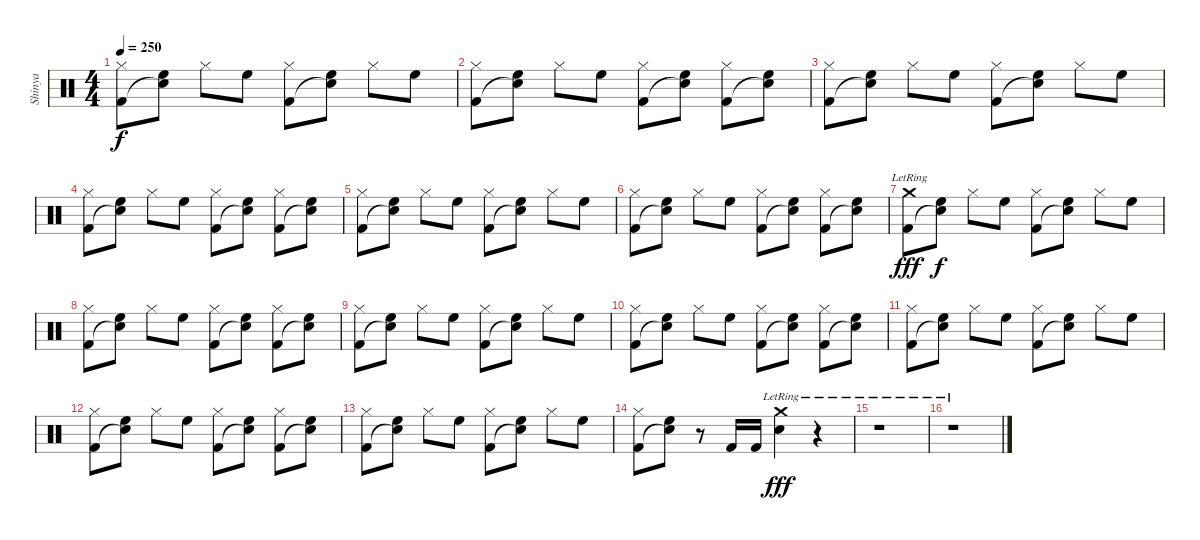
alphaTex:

\track ("Shinya" "Shinya") {instrument percussion}
\staff {score}
\articulation defaults
\ts (4 4)
\tempo 250
\clef neutral
\ks c
("Hi-Hat (closed)" "Kick (hit) 2").8{dy f} ("High Floor Tom (hit)" "Snare (hit)"{t}).8 "Hi-Hat (closed)".8 "High Floor Tom (hit)".8 ("Hi-Hat (closed)" "Kick (hit) 2").8 ("High Floor Tom (hit)" "Snare (hit)"{t}).8 "Hi-Hat (closed)".8 "High Floor Tom (hit)".8 |
("Hi-Hat (closed)" "Kick (hit) 2").8 ("High Floor Tom (hit)" "Snare (hit)"{t}).8 "Hi-Hat (closed)".8 "High Floor Tom (hit)".8 ("Hi-Hat (closed)" "Kick (hit) 2").8 ("High Floor Tom (hit)" "Snare (hit)"{t}).8 ("Hi-Hat (closed)" "Kick (hit) 2").8 ("High Floor Tom (hit)" "Snare (hit)"{t}).8 |
("Hi-Hat (closed)" "Kick (hit) 2").8 ("High Floor Tom (hit)" "Snare (hit)"{t}).8 "Hi-Hat (closed)".8 "High Floor Tom (hit)".8 ("Hi-Hat (closed)" "Kick (hit) 2").8 ("High Floor Tom (hit)" "Snare (hit)"{t}).8 "Hi-Hat (closed)".8 "High Floor Tom (hit)".8 |
("Hi-Hat (closed)" "Kick (hit) 2").8 ("High Floor Tom (hit)" "Snare (hit)"{t}).8 "Hi-Hat (closed)".8 "High Floor Tom (hit)".8 ("Hi-Hat (closed)" "Kick (hit) 2").8 ("High Floor Tom (hit)" "Snare (hit)"{t}).8 ("Hi-Hat (closed)" "Kick (hit) 2").8 ("High Floor Tom (hit)" "Snare (hit)"{t}).8 |
("Hi-Hat (closed)" "Kick (hit) 2").8 ("High Floor Tom (hit)" "Snare (hit)"{t}).8 "Hi-Hat (closed)".8 "High Floor Tom (hit)".8 ("Hi-Hat (closed)" "Kick (hit) 2").8 ("High Floor Tom (hit)" "Snare (hit)"{t}).8 "Hi-Hat (closed)".8 "High Floor Tom (hit)".8 |
("Hi-Hat (closed)" "Kick (hit) 2").8 ("High Floor Tom (hit)" "Snare (hit)"{t}).8 "Hi-Hat (closed)".8 "High Floor Tom (hit)".8 ("Hi-Hat (closed)" "Kick (hit) 2").8 ("High Floor Tom (hit)" "Snare (hit)"{t}).8 ("Hi-Hat (closed)" "Kick (hit) 2").8 ("High Floor Tom (hit)" "Snare (hit)"{t}).8 |
("Crash medium (hit)"{lr} "Kick (hit) 2").8{dy fff} ("High Floor Tom (hit)" "Snare (hit)"{t}).8{dy f} "Hi-Hat (closed)".8 "High Floor Tom (hit)".8 ("Hi-Hat (closed)" "Kick (hit) 2").8 ("High Floor Tom (hit)" "Snare (hit)"{t}).8 "Hi-Hat (closed)".8 "High Floor Tom (hit)".8 |
("Hi-Hat (closed)" "Kick (hit) 2").8 ("High Floor Tom (hit)" "Snare (hit)"{t}).8 "Hi-Hat (closed)".8 "High Floor Tom (hit)".8 ("Hi-Hat (closed)" "Kick (hit) 2").8 ("High Floor Tom (hit)" "Snare (hit)"{t}).8 ("Hi-Hat (closed)" "Kick (hit) 2").8 ("High Floor Tom (hit)" "Snare (hit)"{t}).8 |
("Hi-Hat (closed)" "Kick (hit) 2").8 ("High Floor Tom (hit)" "Snare (hit)"{t}).8 "Hi-Hat (closed)".8 "High Floor Tom (hit)".8 ("Hi-Hat (closed)" "Kick (hit) 2").8 ("High Floor Tom (hit)" "Snare (hit)"{t}).8 "Hi-Hat (closed)".8 "High Floor Tom (hit)".8 |
("Hi-Hat (closed)" "Kick (hit) 2").8 ("High Floor Tom (hit)" "Snare (hit)"{t}).8 "Hi-Hat (closed)".8 "High Floor Tom (hit)".8 ("Hi-Hat (closed)" "Kick (hit) 2").8 ("High Floor Tom (hit)" "Snare (hit)"{t}).8 ("Hi-Hat (closed)" "Kick (hit) 2").8 ("High Floor Tom (hit)" "Snare (hit)"{t}).8 |
("Hi-Hat (closed)" "Kick (hit) 2").8 ("High Floor Tom (hit)" "Snare (hit)"{t}).8 "Hi-Hat (closed)".8 "High Floor Tom (hit)".8 ("Hi-Hat (closed)" "Kick (hit) 2").8 ("High Floor Tom (hit)" "Snare (hit)"{t}).8 "Hi-Hat (closed)".8 "High Floor Tom (hit)".8 |
("Hi-Hat (closed)" "Kick (hit) 2").8 ("High Floor Tom (hit)" "Snare (hit)"{t}).8 "Hi-Hat (closed)".8 "High Floor Tom (hit)".8 ("Hi-Hat (closed)" "Kick (hit) 2").8 ("High Floor Tom (hit)" "Snare (hit)"{t}).8 ("Hi-Hat (closed)" "Kick (hit) 2").8 ("High Floor Tom (hit)" "Snare (hit)"{t}).8 |
("Hi-Hat (closed)" "Kick (hit) 2").8 ("High Floor Tom (hit)" "Snare (hit)"{t}).8 "Hi-Hat (closed)".8 "High Floor Tom (hit)".8 ("Hi-Hat (closed)" "Kick (hit) 2").8 ("High Floor Tom (hit)" "Snare (hit)"{t}).8 "Hi-Hat (closed)".8 "High Floor Tom (hit)".8 |
("Hi-Hat (closed)" "Kick (hit) 2").8 ("High Floor Tom (hit)" "Snare (hit)"{t}).8 r.8 "Kick (hit) 2".16 "Kick (hit) 2".16 ("Crash medium (hit)"{lr} "Electric Snare (hit)").4{dy fff} r.4 |
r.1{balance 8} |
r.1
